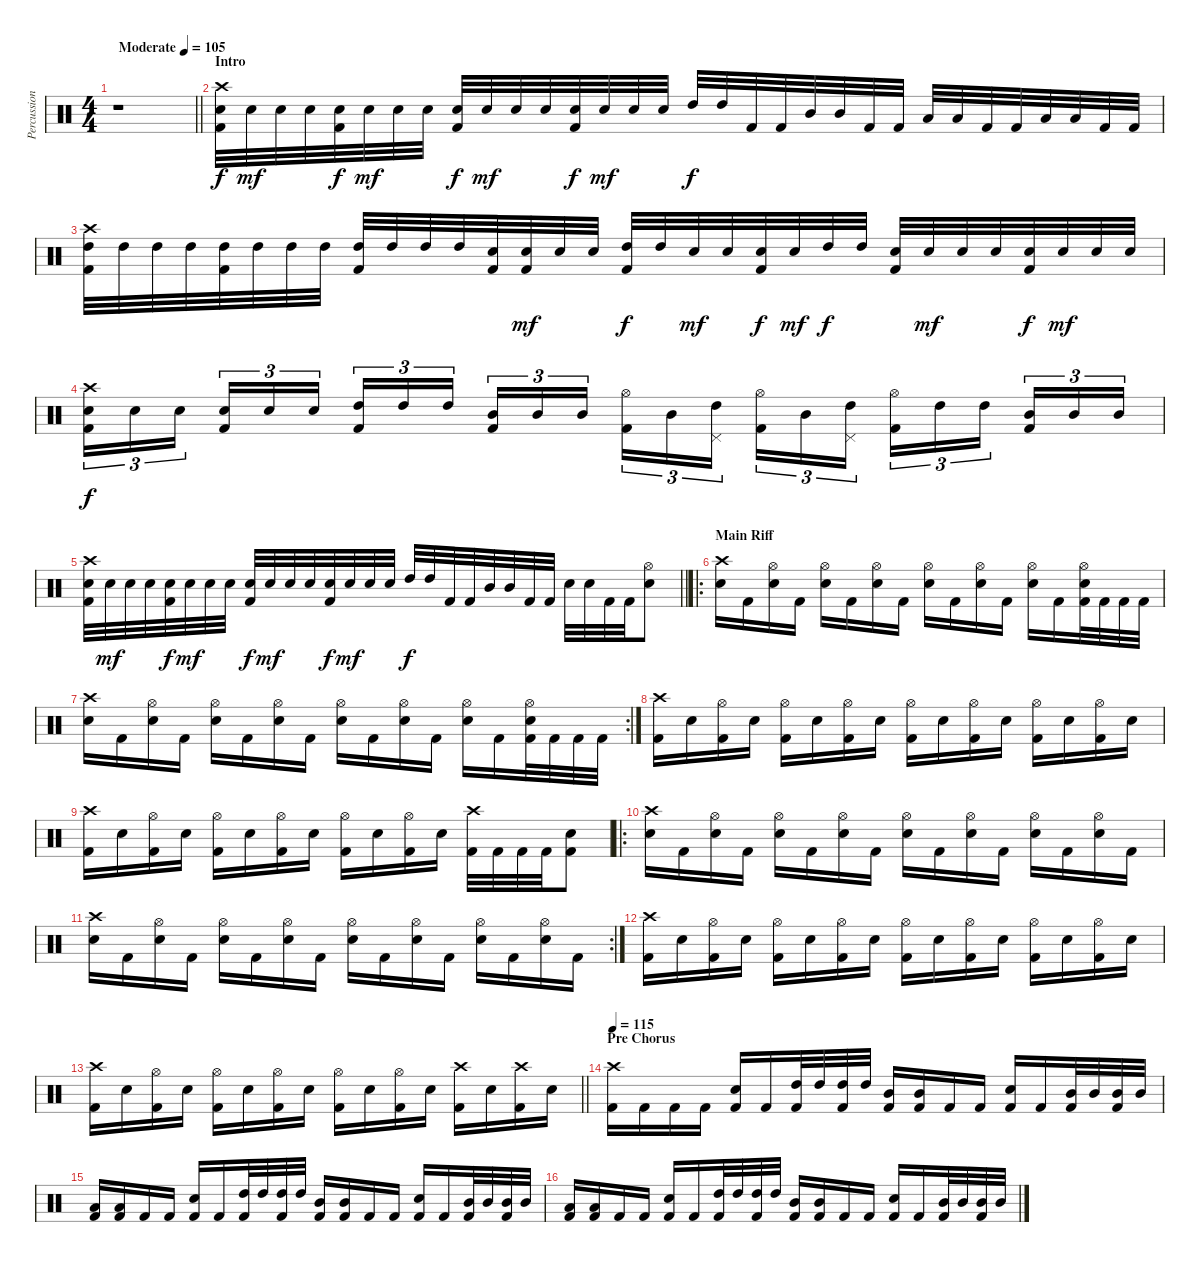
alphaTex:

\track ("Percussion" "Percussion") {mute instrument percussion}
\staff {score}
\articulation defaults
\ts (4 4)
\tempo (105 "Moderate")
\clef neutral
\barLineRight lightlight
\ks c
r.1{dy f} |
\section ("" "Intro ")
("Crash high (hit)" "Electric Snare (hit)" "Kick (hit) 2").32 "Electric Snare (hit)".32{dy mf} "Electric Snare (hit)".32 "Electric Snare (hit)".32 ("Electric Snare (hit)" "Kick (hit) 2").32{dy f} "Electric Snare (hit)".32{dy mf} "Electric Snare (hit)".32 "Electric Snare (hit)".32 ("Electric Snare (hit)" "Kick (hit) 2").32{dy f} "Electric Snare (hit)".32{dy mf} "Electric Snare (hit)".32 "Electric Snare (hit)".32 ("Electric Snare (hit)" "Kick (hit) 2").32{dy f} "Electric Snare (hit)".32{dy mf} "Electric Snare (hit)".32 "Electric Snare (hit)".32 "High Tom (hit)".32{dy f} "High Tom (hit)".32 "Kick (hit) 2".32 "Kick (hit) 2".32 "Mid Tom (hit)".32 "Mid Tom (hit)".32 "Kick (hit) 2".32 "Kick (hit) 2".32 "Low Tom (hit)".32 "Low Tom (hit)".32 "Kick (hit) 2".32 "Kick (hit) 2".32 "Low Tom (hit)".32 "Low Tom (hit)".32 "Kick (hit) 2".32 "Kick (hit) 2".32 |
("Crash high (hit)" "High Tom (hit)" "Kick (hit) 2").32 "High Tom (hit)".32 "High Tom (hit)".32 "High Tom (hit)".32 ("High Tom (hit)" "Kick (hit) 2").32 "High Tom (hit)".32 "High Tom (hit)".32 "High Tom (hit)".32 ("High Tom (hit)" "Kick (hit) 2").32 "High Tom (hit)".32 "High Tom (hit)".32 "High Tom (hit)".32 ("Electric Snare (hit)" "Kick (hit) 2").32 ("Electric Snare (hit)" "Kick (hit) 2").32{dy mf} "Electric Snare (hit)".32 "Electric Snare (hit)".32 ("High Tom (hit)" "Kick (hit) 2").32{dy f} "High Tom (hit)".32 "Electric Snare (hit)".32{dy mf} "Electric Snare (hit)".32 ("Electric Snare (hit)" "Kick (hit) 2").32{dy f} "Electric Snare (hit)".32{dy mf} "High Tom (hit)".32{dy f} "High Tom (hit)".32 ("Electric Snare (hit)" "Kick (hit) 2").32 "Electric Snare (hit)".32{dy mf} "Electric Snare (hit)".32 "Electric Snare (hit)".32 ("Electric Snare (hit)" "Kick (hit) 2").32{dy f} "Electric Snare (hit)".32{dy mf} "Electric Snare (hit)".32 "Electric Snare (hit)".32 |
("Crash high (hit)" "Electric Snare (hit)" "Kick (hit) 2").16{tu (3 2) dy f} "Electric Snare (hit)".16{tu (3 2)} "Electric Snare (hit)".16{tu (3 2) beam splitsecondary} ("Electric Snare (hit)" "Kick (hit) 2").16{tu (3 2)} "Electric Snare (hit)".16{tu (3 2)} "Electric Snare (hit)".16{tu (3 2)} ("High Tom (hit)" "Kick (hit) 2").16{tu (3 2)} "High Tom (hit)".16{tu (3 2)} "High Tom (hit)".16{tu (3 2) beam splitsecondary} ("Mid Tom (hit)" "Kick (hit) 2").16{tu (3 2)} "Mid Tom (hit)".16{tu (3 2)} "Mid Tom (hit)".16{tu (3 2)} ("Hi-Hat (open)" "Kick (hit) 2").16{tu (3 2)} "Mid Tom (hit)".16{tu (3 2)} ("High Tom (hit)" "Pedal Hi-Hat (hit)").16{tu (3 2) beam splitsecondary} ("Hi-Hat (open)" "Kick (hit) 2").16{tu (3 2)} "Mid Tom (hit)".16{tu (3 2)} ("High Tom (hit)" "Pedal Hi-Hat (hit)").16{tu (3 2)} ("Hi-Hat (open)" "Kick (hit) 2").16{tu (3 2)} "High Tom (hit)".16{tu (3 2)} "High Tom (hit)".16{tu (3 2) beam splitsecondary} ("Mid Tom (hit)" "Kick (hit) 2").16{tu (3 2)} "Mid Tom (hit)".16{tu (3 2)} "Mid Tom (hit)".16{tu (3 2)} |
\barLineRight lightlight
("Crash high (hit)" "Electric Snare (hit)" "Kick (hit) 2").32 "Electric Snare (hit)".32{dy mf} "Electric Snare (hit)".32 "Electric Snare (hit)".32 ("Electric Snare (hit)" "Kick (hit) 2").32{dy f} "Electric Snare (hit)".32{dy mf} "Electric Snare (hit)".32 "Electric Snare (hit)".32 ("Electric Snare (hit)" "Kick (hit) 2").32{dy f} "Electric Snare (hit)".32{dy mf} "Electric Snare (hit)".32 "Electric Snare (hit)".32 ("Electric Snare (hit)" "Kick (hit) 2").32{dy f} "Electric Snare (hit)".32{dy mf} "Electric Snare (hit)".32 "Electric Snare (hit)".32 "High Tom (hit)".32{dy f} "High Tom (hit)".32 "Kick (hit) 2".32 "Kick (hit) 2".32 "Mid Tom (hit)".32 "Mid Tom (hit)".32 "Kick (hit) 2".32 "Kick (hit) 2".32 "Electric Snare (hit)".32 "Electric Snare (hit)".32 "Kick (hit) 2".32 "Kick (hit) 2".32 ("Hi-Hat (open)" "Electric Snare (hit)").8 |
\ro
\section ("" "Main Riff")
("Crash high (hit)" "Electric Snare (hit)").16 "Kick (hit) 2".16 ("Hi-Hat (open)" "Electric Snare (hit)").16 "Kick (hit) 2".16 ("Hi-Hat (open)" "Electric Snare (hit)").16 "Kick (hit) 2".16 ("Hi-Hat (open)" "Electric Snare (hit)").16 "Kick (hit) 2".16 ("Hi-Hat (open)" "Electric Snare (hit)").16 "Kick (hit) 2".16 ("Hi-Hat (open)" "Electric Snare (hit)").16 "Kick (hit) 2".16 ("Hi-Hat (open)" "Electric Snare (hit)").16 "Kick (hit) 2".16 ("Hi-Hat (open)" "Electric Snare (hit)" "Kick (hit) 2").32 "Kick (hit) 2".32 "Kick (hit) 2".32 "Kick (hit) 2".32 |
\rc 2
("Crash high (hit)" "Electric Snare (hit)").16 "Kick (hit) 2".16 ("Hi-Hat (open)" "Electric Snare (hit)").16 "Kick (hit) 2".16 ("Hi-Hat (open)" "Electric Snare (hit)").16 "Kick (hit) 2".16 ("Hi-Hat (open)" "Electric Snare (hit)").16 "Kick (hit) 2".16 ("Hi-Hat (open)" "Electric Snare (hit)").16 "Kick (hit) 2".16 ("Hi-Hat (open)" "Electric Snare (hit)").16 "Kick (hit) 2".16 ("Hi-Hat (open)" "Electric Snare (hit)").16 "Kick (hit) 2".16 ("Hi-Hat (open)" "Electric Snare (hit)" "Kick (hit) 2").32 "Kick (hit) 2".32 "Kick (hit) 2".32 "Kick (hit) 2".32 |
("Crash high (hit)" "Kick (hit) 2").16 "Electric Snare (hit)".16 ("Hi-Hat (open)" "Kick (hit) 2").16 "Electric Snare (hit)".16 ("Hi-Hat (open)" "Kick (hit) 2").16 "Electric Snare (hit)".16 ("Hi-Hat (open)" "Kick (hit) 2").16 "Electric Snare (hit)".16 ("Hi-Hat (open)" "Kick (hit) 2").16 "Electric Snare (hit)".16 ("Hi-Hat (open)" "Kick (hit) 2").16 "Electric Snare (hit)".16 ("Hi-Hat (open)" "Kick (hit) 2").16 "Electric Snare (hit)".16 ("Hi-Hat (open)" "Kick (hit) 2").16 "Electric Snare (hit)".16 |
("Crash high (hit)" "Kick (hit) 2").16 "Electric Snare (hit)".16 ("Hi-Hat (open)" "Kick (hit) 2").16 "Electric Snare (hit)".16 ("Hi-Hat (open)" "Kick (hit) 2").16 "Electric Snare (hit)".16 ("Hi-Hat (open)" "Kick (hit) 2").16 "Electric Snare (hit)".16 ("Hi-Hat (open)" "Kick (hit) 2").16 "Electric Snare (hit)".16 ("Hi-Hat (open)" "Kick (hit) 2").16 "Electric Snare (hit)".16 ("Crash high (hit)" "Kick (hit) 2").32 "Kick (hit) 2".32 "Kick (hit) 2".32 "Kick (hit) 2".32 ("Electric Snare (hit)" "Kick (hit) 2").8 |
\ro
("Crash high (hit)" "Electric Snare (hit)").16 "Kick (hit) 2".16 ("Hi-Hat (open)" "Electric Snare (hit)").16 "Kick (hit) 2".16 ("Hi-Hat (open)" "Electric Snare (hit)").16 "Kick (hit) 2".16 ("Hi-Hat (open)" "Electric Snare (hit)").16 "Kick (hit) 2".16 ("Hi-Hat (open)" "Electric Snare (hit)").16 "Kick (hit) 2".16 ("Hi-Hat (open)" "Electric Snare (hit)").16 "Kick (hit) 2".16 ("Hi-Hat (open)" "Electric Snare (hit)").16 "Kick (hit) 2".16 ("Hi-Hat (open)" "Electric Snare (hit)").16 "Kick (hit) 2".16 |
\rc 2
("Crash high (hit)" "Electric Snare (hit)").16 "Kick (hit) 2".16 ("Hi-Hat (open)" "Electric Snare (hit)").16 "Kick (hit) 2".16 ("Hi-Hat (open)" "Electric Snare (hit)").16 "Kick (hit) 2".16 ("Hi-Hat (open)" "Electric Snare (hit)").16 "Kick (hit) 2".16 ("Hi-Hat (open)" "Electric Snare (hit)").16 "Kick (hit) 2".16 ("Hi-Hat (open)" "Electric Snare (hit)").16 "Kick (hit) 2".16 ("Hi-Hat (open)" "Electric Snare (hit)").16 "Kick (hit) 2".16 ("Hi-Hat (open)" "Electric Snare (hit)").16 "Kick (hit) 2".16 |
("Crash high (hit)" "Kick (hit) 2").16 "Electric Snare (hit)".16 ("Hi-Hat (open)" "Kick (hit) 2").16 "Electric Snare (hit)".16 ("Hi-Hat (open)" "Kick (hit) 2").16 "Electric Snare (hit)".16 ("Hi-Hat (open)" "Kick (hit) 2").16 "Electric Snare (hit)".16 ("Hi-Hat (open)" "Kick (hit) 2").16 "Electric Snare (hit)".16 ("Hi-Hat (open)" "Kick (hit) 2").16 "Electric Snare (hit)".16 ("Hi-Hat (open)" "Kick (hit) 2").16 "Electric Snare (hit)".16 ("Hi-Hat (open)" "Kick (hit) 2").16 "Electric Snare (hit)".16 |
\barLineRight lightlight
("Crash high (hit)" "Kick (hit) 2").16 "Electric Snare (hit)".16 ("Hi-Hat (open)" "Kick (hit) 2").16 "Electric Snare (hit)".16 ("Hi-Hat (open)" "Kick (hit) 2").16 "Electric Snare (hit)".16 ("Hi-Hat (open)" "Kick (hit) 2").16 "Electric Snare (hit)".16 ("Hi-Hat (open)" "Kick (hit) 2").16 "Electric Snare (hit)".16 ("Hi-Hat (open)" "Kick (hit) 2").16 "Electric Snare (hit)".16 ("Crash high (hit)" "Kick (hit) 2").16 "Electric Snare (hit)".16 ("Crash high (hit)" "Kick (hit) 2").16 "Electric Snare (hit)".16 |
\section ("" "Pre Chorus")
\tempo 115
("Crash high (hit)" "Kick (hit) 2").16 "Kick (hit) 2".16 "Kick (hit) 2".16 "Kick (hit) 2".16 ("Electric Snare (hit)" "Kick (hit) 2").16 "Kick (hit) 2".16 ("High Tom (hit)" "Kick (hit) 2").32 "High Tom (hit)".32 ("High Tom (hit)" "Kick (hit) 2").32 "High Tom (hit)".32 ("Mid Tom (hit)" "Kick (hit) 2").16 ("Mid Tom (hit)" "Kick (hit) 2").16 "Kick (hit) 2".16 "Kick (hit) 2".16 ("Electric Snare (hit)" "Kick (hit) 2").16 "Kick (hit) 2".16 ("Mid Tom (hit)" "Kick (hit) 2").32 "Mid Tom (hit)".32 ("Mid Tom (hit)" "Kick (hit) 2").32 "Mid Tom (hit)".32 |
("Low Tom (hit)" "Kick (hit) 2").16 ("Low Tom (hit)" "Kick (hit) 2").16 "Kick (hit) 2".16 "Kick (hit) 2".16 ("Electric Snare (hit)" "Kick (hit) 2").16 "Kick (hit) 2".16 ("High Tom (hit)" "Kick (hit) 2").32 "High Tom (hit)".32 ("High Tom (hit)" "Kick (hit) 2").32 "High Tom (hit)".32 ("Mid Tom (hit)" "Kick (hit) 2").16 ("Mid Tom (hit)" "Kick (hit) 2").16 "Kick (hit) 2".16 "Kick (hit) 2".16 ("Electric Snare (hit)" "Kick (hit) 2").16 "Kick (hit) 2".16 ("Mid Tom (hit)" "Kick (hit) 2").32 "Mid Tom (hit)".32 ("Mid Tom (hit)" "Kick (hit) 2").32 "Mid Tom (hit)".32 |
("Low Tom (hit)" "Kick (hit) 2").16 ("Low Tom (hit)" "Kick (hit) 2").16 "Kick (hit) 2".16 "Kick (hit) 2".16 ("Electric Snare (hit)" "Kick (hit) 2").16 "Kick (hit) 2".16 ("High Tom (hit)" "Kick (hit) 2").32 "High Tom (hit)".32 ("High Tom (hit)" "Kick (hit) 2").32 "High Tom (hit)".32 ("Mid Tom (hit)" "Kick (hit) 2").16 ("Mid Tom (hit)" "Kick (hit) 2").16 "Kick (hit) 2".16 "Kick (hit) 2".16 ("Electric Snare (hit)" "Kick (hit) 2").16 "Kick (hit) 2".16 ("Mid Tom (hit)" "Kick (hit) 2").32 "Mid Tom (hit)".32 ("Mid Tom (hit)" "Kick (hit) 2").32 "Mid Tom (hit)".32
